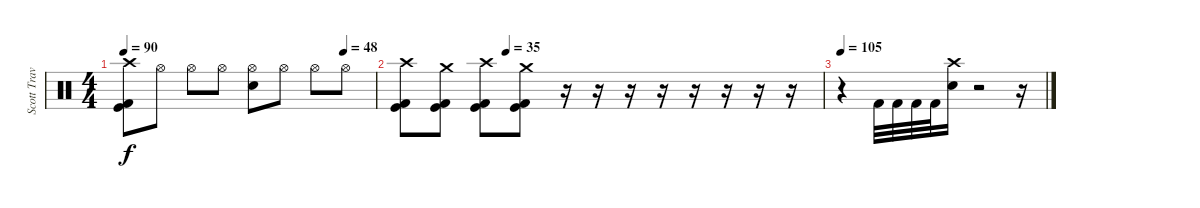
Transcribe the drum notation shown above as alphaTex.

\track ("Scott Travis" "Scott Trav") {instrument percussion}
\staff {score}
\articulation defaults
\ts (4 4)
\tempo 90
\tempo (48 0.875)
\clef neutral
\ks c
("Crash high (hit)" "Kick (hit)" "Kick (hit) 2").8{dy f} "Hi-Hat (open)".8 "Hi-Hat (open)".8 "Hi-Hat (open)".8 ("Hi-Hat (open)" "Snare (hit) 2").8 "Hi-Hat (open)".8 "Hi-Hat (open)".8 "Hi-Hat (open)".8 |
\tempo (35 0.25)
("Crash high (hit)" "Kick (hit)" "Kick (hit) 2").8 ("Crash medium (hit)" "Kick (hit)" "Kick (hit) 2").8 ("Crash high (hit)" "Kick (hit)" "Kick (hit) 2").8 ("Crash medium (hit)" "Kick (hit)" "Kick (hit) 2").8 r.16 r.16 r.16 r.16 r.16 r.16 r.16 r.16 |
\tempo 105
r.4 "Kick (hit) 2".32 "Kick (hit) 2".32 "Kick (hit) 2".32 "Kick (hit) 2".32 ("Crash high (hit)" "Snare (hit) 2").16 r.2 r.16
